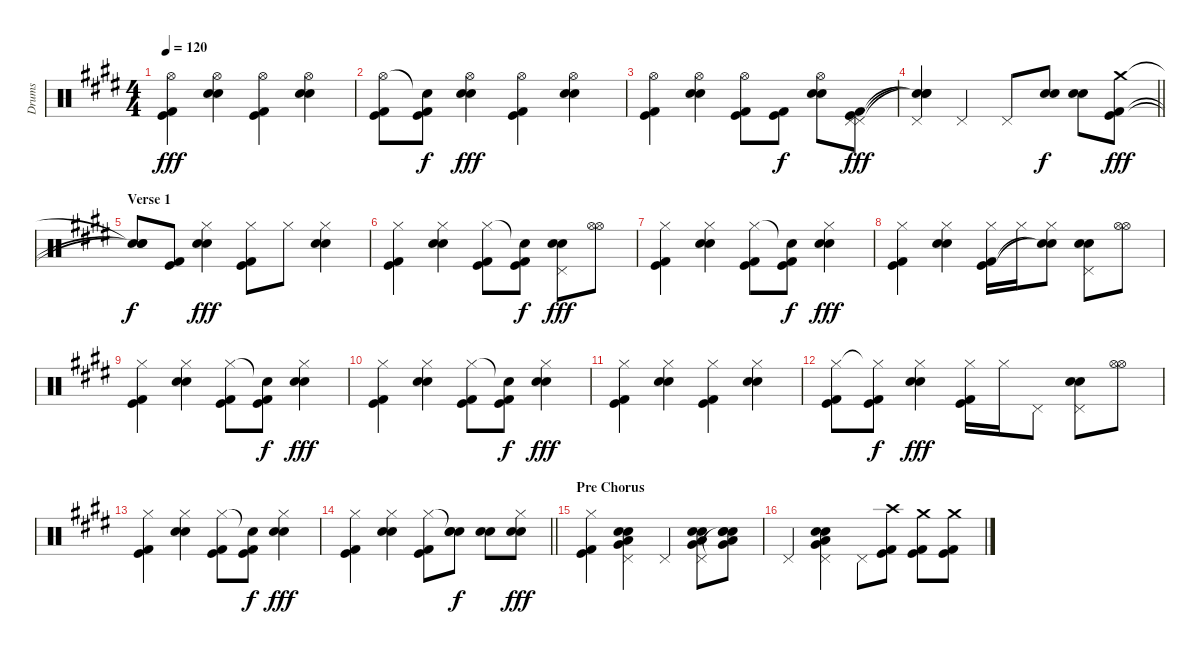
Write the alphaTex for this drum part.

\track ("Drums" "Drums") {instrument percussion}
\staff {score}
\articulation defaults
\ts (4 4)
\tempo 120
\clef neutral
\ks e
("Hi-Hat (open)" "Kick (hit)" "Kick (hit) 2").4{dy fff} ("Hi-Hat (open)" "Electric Snare (hit)" "Snare (hit) 2").4 ("Hi-Hat (open)" "Kick (hit)" "Kick (hit) 2").4 ("Hi-Hat (open)" "Electric Snare (hit)" "Snare (hit) 2").4 |
("Hi-Hat (open)" "Kick (hit)" "Kick (hit) 2").8 ("Snare (hit)"{t} "Kick (hit)" "Kick (hit) 2").8{dy f} ("Hi-Hat (open)" "Electric Snare (hit)" "Snare (hit) 2").4{dy fff} ("Hi-Hat (open)" "Kick (hit)" "Kick (hit) 2").4 ("Hi-Hat (open)" "Electric Snare (hit)" "Snare (hit) 2").4 |
("Hi-Hat (open)" "Kick (hit)" "Kick (hit) 2").4 ("Hi-Hat (open)" "Electric Snare (hit)" "Snare (hit) 2").4 ("Hi-Hat (open)" "Kick (hit)" "Kick (hit) 2").8 ("Kick (hit)" "Kick (hit) 2").8{dy f} ("Hi-Hat (open)" "Electric Snare (hit)" "Snare (hit) 2").8 ("Pedal Hi-Hat (hit)" "Pedal Hi-Hat (hit)" "Kick (hit)" "Kick (hit) 2").8{dy fff} |
\barLineRight lightlight
("Pedal Hi-Hat (hit)" "Snare (hit)"{t} "Snare (hit)"{t} "Snare (hit)"{t}).4 "Pedal Hi-Hat (hit)".4 "Pedal Hi-Hat (hit)".8 ("Electric Snare (hit)" "Snare (hit) 2").8{dy f} ("Electric Snare (hit)" "Snare (hit) 2").8 ("Crash medium (hit)" "Kick (hit)" "Kick (hit) 2").8{dy fff} |
\section ("" "Verse 1")
("Snare (hit)"{t} "Snare (hit)"{t} "Snare (hit)"{t}).8{dy f} ("Kick (hit)" "Kick (hit) 2").8 ("Hi-Hat (closed)" "Electric Snare (hit)" "Snare (hit) 2").4{dy fff} ("Hi-Hat (closed)" "Kick (hit)" "Kick (hit) 2").8 "Hi-Hat (closed)".8 ("Hi-Hat (closed)" "Electric Snare (hit)" "Snare (hit) 2").4 |
("Hi-Hat (closed)" "Kick (hit)" "Kick (hit) 2").4 ("Hi-Hat (closed)" "Electric Snare (hit)" "Snare (hit) 2").4 ("Hi-Hat (closed)" "Kick (hit)" "Kick (hit) 2").8 ("Snare (hit)"{t} "Kick (hit)" "Kick (hit) 2").8{dy f} ("Pedal Hi-Hat (hit)" "Electric Snare (hit)" "Snare (hit) 2").8{dy fff} ("Hi-Hat (open)" "Hi-Hat (open)").8 |
("Hi-Hat (closed)" "Kick (hit)" "Kick (hit) 2").4 ("Hi-Hat (closed)" "Electric Snare (hit)" "Snare (hit) 2").4 ("Hi-Hat (closed)" "Kick (hit)" "Kick (hit) 2").8 ("Snare (hit)"{t} "Kick (hit)" "Kick (hit) 2").8{dy f} ("Hi-Hat (closed)" "Electric Snare (hit)" "Snare (hit) 2").4{dy fff} |
("Hi-Hat (closed)" "Kick (hit)" "Kick (hit) 2").4 ("Hi-Hat (closed)" "Electric Snare (hit)" "Snare (hit) 2").4 ("Hi-Hat (closed)" "Kick (hit)" "Kick (hit) 2").16 "Hi-Hat (closed)".16 ("Hi-Hat (closed)" "Snare (hit)"{t} "Snare (hit)"{t}).8 ("Pedal Hi-Hat (hit)" "Electric Snare (hit)" "Snare (hit) 2").8 ("Hi-Hat (open)" "Hi-Hat (open)").8 |
("Hi-Hat (closed)" "Kick (hit)" "Kick (hit) 2").4 ("Hi-Hat (closed)" "Electric Snare (hit)" "Snare (hit) 2").4 ("Hi-Hat (closed)" "Kick (hit)" "Kick (hit) 2").8 ("Snare (hit)"{t} "Kick (hit)" "Kick (hit) 2").8{dy f} ("Hi-Hat (closed)" "Electric Snare (hit)" "Snare (hit) 2").4{dy fff} |
("Hi-Hat (closed)" "Kick (hit)" "Kick (hit) 2").4 ("Hi-Hat (closed)" "Electric Snare (hit)" "Snare (hit) 2").4 ("Hi-Hat (closed)" "Kick (hit)" "Kick (hit) 2").8 ("Snare (hit)"{t} "Kick (hit)" "Kick (hit) 2").8{dy f} ("Hi-Hat (closed)" "Electric Snare (hit)" "Snare (hit) 2").4{dy fff} |
("Hi-Hat (closed)" "Kick (hit)" "Kick (hit) 2").4 ("Hi-Hat (closed)" "Electric Snare (hit)" "Snare (hit) 2").4 ("Hi-Hat (closed)" "Kick (hit)" "Kick (hit) 2").4 ("Hi-Hat (closed)" "Electric Snare (hit)" "Snare (hit) 2").4 |
("Hi-Hat (closed)" "Kick (hit)" "Kick (hit) 2").8 ("Hi-Hat (closed)"{t} "Kick (hit)" "Kick (hit) 2").8{dy f} ("Hi-Hat (closed)" "Electric Snare (hit)" "Snare (hit) 2").4{dy fff} ("Hi-Hat (closed)" "Kick (hit)" "Kick (hit) 2").16 "Hi-Hat (closed)".16 "Pedal Hi-Hat (hit)".8 ("Pedal Hi-Hat (hit)" "Electric Snare (hit)" "Snare (hit) 2").8 ("Hi-Hat (open)" "Hi-Hat (open)").8 |
("Hi-Hat (closed)" "Kick (hit)" "Kick (hit) 2").4 ("Hi-Hat (closed)" "Electric Snare (hit)" "Snare (hit) 2").4 ("Hi-Hat (closed)" "Kick (hit)" "Kick (hit) 2").8 ("Snare (hit)"{t} "Kick (hit)" "Kick (hit) 2").8{dy f} ("Hi-Hat (closed)" "Electric Snare (hit)" "Snare (hit) 2").4{dy fff} |
\barLineRight lightlight
("Hi-Hat (closed)" "Kick (hit)" "Kick (hit) 2").4 ("Hi-Hat (closed)" "Electric Snare (hit)" "Snare (hit) 2").4 ("Hi-Hat (closed)" "Kick (hit)" "Kick (hit) 2").8 ("Snare (hit)"{t} "Electric Snare (hit)" "Snare (hit) 2").8{dy f} ("Electric Snare (hit)" "Snare (hit) 2").8 ("Hi-Hat (closed)" "Electric Snare (hit)" "Snare (hit) 2").8{dy fff} |
\section ("" "Pre Chorus")
("Hi-Hat (closed)" "Kick (hit)" "Kick (hit) 2").4 ("Pedal Hi-Hat (hit)" "Electric Snare (hit)" "Snare (hit) 2" "Very Low Tom (hit)" "Low Floor Tom (hit)").4 "Pedal Hi-Hat (hit)".4 ("Pedal Hi-Hat (hit)" "Electric Snare (hit)" "Snare (hit) 2" "Very Low Tom (hit)" "Low Floor Tom (hit)").8 ("Snare (hit)"{t} "Electric Snare (hit)" "Snare (hit) 2" "Very Low Tom (hit)" "Low Floor Tom (hit)").8 |
"Pedal Hi-Hat (hit)".4 ("Pedal Hi-Hat (hit)" "Electric Snare (hit)" "Snare (hit) 2" "Very Low Tom (hit)" "Low Floor Tom (hit)").4 "Pedal Hi-Hat (hit)".8 ("Crash high (hit)" "Kick (hit)" "Kick (hit) 2").8 ("Crash medium (hit)" "Kick (hit)" "Kick (hit) 2").8 ("Crash medium (hit)" "Kick (hit)" "Kick (hit) 2").8
